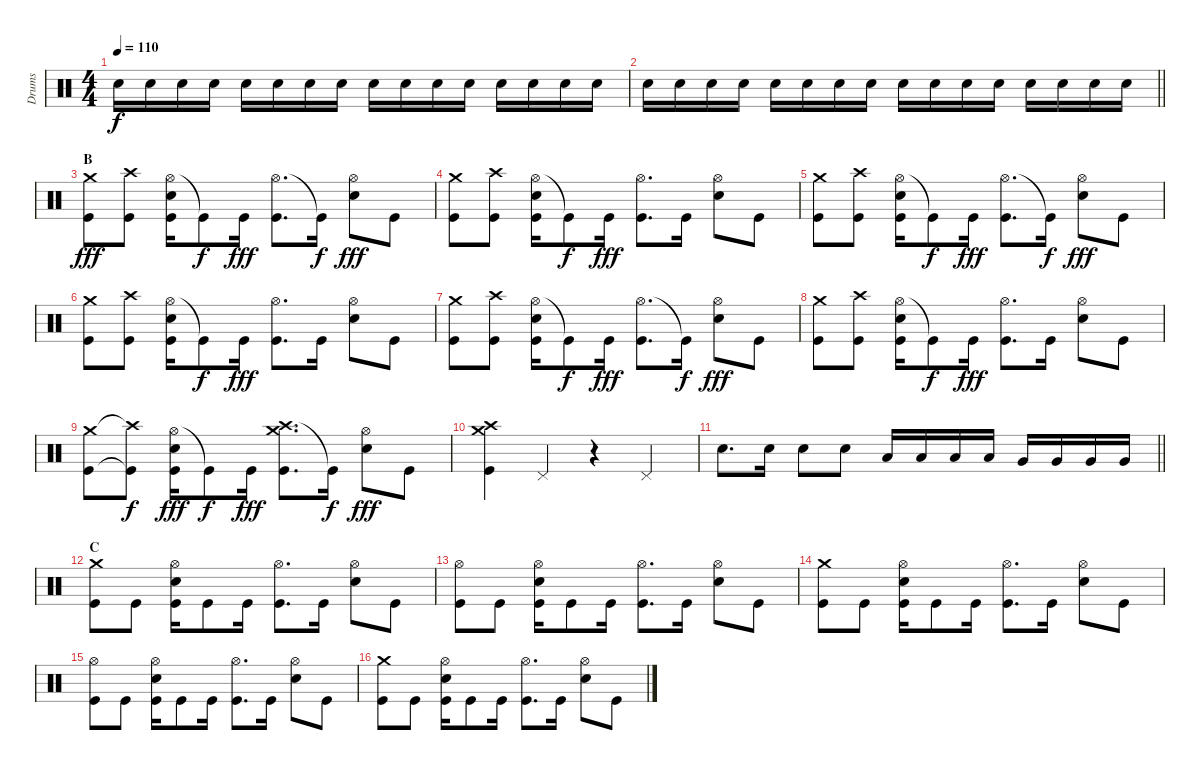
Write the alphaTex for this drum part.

\track ("Drums" "Drums") {instrument percussion}
\staff {score}
\articulation defaults
\ts (4 4)
\tempo 110
\clef neutral
\ks c "Electric Snare (hit)".16{dy f} "Electric Snare (hit)".16 "Electric Snare (hit)".16 "Electric Snare (hit)".16 "Electric Snare (hit)".16 "Electric Snare (hit)".16 "Electric Snare (hit)".16 "Electric Snare (hit)".16 "Electric Snare (hit)".16 "Electric Snare (hit)".16 "Electric Snare (hit)".16 "Electric Snare (hit)".16 "Electric Snare (hit)".16 "Electric Snare (hit)".16 "Electric Snare (hit)".16 "Electric Snare (hit)".16
|
\barLineRight lightlight "Electric Snare (hit)".16 "Electric Snare (hit)".16 "Electric Snare (hit)".16 "Electric Snare (hit)".16 "Electric Snare (hit)".16 "Electric Snare (hit)".16 "Electric Snare (hit)".16 "Electric Snare (hit)".16 "Electric Snare (hit)".16 "Electric Snare (hit)".16 "Electric Snare (hit)".16 "Electric Snare (hit)".16 "Electric Snare (hit)".16 "Electric Snare (hit)".16 "Electric Snare (hit)".16 "Electric Snare (hit)".16
|
\section ("" "B")
("Crash medium (hit)" "Kick (hit)").8{dy fff} ("Crash high (hit)" "Kick (hit)").8 ("Hi-Hat (open)" "Electric Snare (hit)" "Kick (hit)").16 "Kick (hit)"{t}.8{dy f} "Kick (hit)".16{dy fff} ("Hi-Hat (open)" "Kick (hit)").8{d} "Kick (hit)"{t}.16{dy f} ("Hi-Hat (open)" "Electric Snare (hit)").8{dy fff} "Kick (hit)".8 |
("Crash medium (hit)" "Kick (hit)").8 ("Crash high (hit)" "Kick (hit)").8 ("Hi-Hat (open)" "Electric Snare (hit)" "Kick (hit)").16 "Kick (hit)"{t}.8{dy f} "Kick (hit)".16{dy fff} ("Hi-Hat (open)" "Kick (hit)").8{d} "Kick (hit)".16 ("Hi-Hat (open)" "Electric Snare (hit)").8 "Kick (hit)".8 |
("Crash medium (hit)" "Kick (hit)").8 ("Crash high (hit)" "Kick (hit)").8 ("Hi-Hat (open)" "Electric Snare (hit)" "Kick (hit)").16 "Kick (hit)"{t}.8{dy f} "Kick (hit)".16{dy fff} ("Hi-Hat (open)" "Kick (hit)").8{d} "Kick (hit)"{t}.16{dy f} ("Hi-Hat (open)" "Electric Snare (hit)").8{dy fff} "Kick (hit)".8 |
("Crash medium (hit)" "Kick (hit)").8 ("Crash high (hit)" "Kick (hit)").8 ("Hi-Hat (open)" "Electric Snare (hit)" "Kick (hit)").16 "Kick (hit)"{t}.8{dy f} "Kick (hit)".16{dy fff} ("Hi-Hat (open)" "Kick (hit)").8{d} "Kick (hit)".16 ("Hi-Hat (open)" "Electric Snare (hit)").8 "Kick (hit)".8 |
("Crash medium (hit)" "Kick (hit)").8 ("Crash high (hit)" "Kick (hit)").8 ("Hi-Hat (open)" "Electric Snare (hit)" "Kick (hit)").16 "Kick (hit)"{t}.8{dy f} "Kick (hit)".16{dy fff} ("Hi-Hat (open)" "Kick (hit)").8{d} "Kick (hit)"{t}.16{dy f} ("Hi-Hat (open)" "Electric Snare (hit)").8{dy fff} "Kick (hit)".8 |
("Crash medium (hit)" "Kick (hit)").8 ("Crash high (hit)" "Kick (hit)").8 ("Hi-Hat (open)" "Electric Snare (hit)" "Kick (hit)").16 "Kick (hit)"{t}.8{dy f} "Kick (hit)".16{dy fff} ("Hi-Hat (open)" "Kick (hit)").8{d} "Kick (hit)".16 ("Hi-Hat (open)" "Electric Snare (hit)").8 "Kick (hit)".8 |
("Crash medium (hit)" "Kick (hit)").8 ("Crash high (hit)"{t} "Kick (hit)"{t}).8{dy f} ("Hi-Hat (open)" "Electric Snare (hit)" "Kick (hit)").16{dy fff} "Kick (hit)"{t}.8{dy f} "Kick (hit)".16{dy fff} ("Crash high (hit)" "Crash medium (hit)" "Kick (hit)").8{d} "Kick (hit)"{t}.16{dy f} ("Hi-Hat (open)" "Electric Snare (hit)").8{dy fff} "Kick (hit)".8 |
("Crash medium (hit)" "Crash high (hit)" "Kick (hit)").4 "Pedal Hi-Hat (hit)".4 r.4 "Pedal Hi-Hat (hit)".4 |
\barLineRight lightlight "Electric Snare (hit)".8{d} "Electric Snare (hit)".16 "Electric Snare (hit)".8 "Electric Snare (hit)".8 "Low Tom (hit)".16 "Low Tom (hit)".16 "Low Tom (hit)".16 "Low Tom (hit)".16 "Very Low Tom (hit)".16 "Very Low Tom (hit)".16 "Very Low Tom (hit)".16 "Very Low Tom (hit)".16
|
\section ("" "C")
("Crash medium (hit)" "Kick (hit)").8 "Kick (hit)".8 ("Hi-Hat (open)" "Electric Snare (hit)" "Kick (hit)").16 "Kick (hit)".8 "Kick (hit)".16 ("Hi-Hat (open)" "Kick (hit)").8{d} "Kick (hit)".16 ("Hi-Hat (open)" "Electric Snare (hit)").8 "Kick (hit)".8 |
("Hi-Hat (open)" "Kick (hit)").8 "Kick (hit)".8 ("Hi-Hat (open)" "Electric Snare (hit)" "Kick (hit)").16 "Kick (hit)".8 "Kick (hit)".16 ("Hi-Hat (open)" "Kick (hit)").8{d} "Kick (hit)".16 ("Hi-Hat (open)" "Electric Snare (hit)").8 "Kick (hit)".8 |
("Crash medium (hit)" "Kick (hit)").8 "Kick (hit)".8 ("Hi-Hat (open)" "Electric Snare (hit)" "Kick (hit)").16 "Kick (hit)".8 "Kick (hit)".16 ("Hi-Hat (open)" "Kick (hit)").8{d} "Kick (hit)".16 ("Hi-Hat (open)" "Electric Snare (hit)").8 "Kick (hit)".8 |
("Hi-Hat (open)" "Kick (hit)").8 "Kick (hit)".8 ("Hi-Hat (open)" "Electric Snare (hit)" "Kick (hit)").16 "Kick (hit)".8 "Kick (hit)".16 ("Hi-Hat (open)" "Kick (hit)").8{d} "Kick (hit)".16 ("Hi-Hat (open)" "Electric Snare (hit)").8 "Kick (hit)".8 |
("Crash medium (hit)" "Kick (hit)").8 "Kick (hit)".8 ("Hi-Hat (open)" "Electric Snare (hit)" "Kick (hit)").16 "Kick (hit)".8 "Kick (hit)".16 ("Hi-Hat (open)" "Kick (hit)").8{d} "Kick (hit)".16 ("Hi-Hat (open)" "Electric Snare (hit)").8 "Kick (hit)".8
